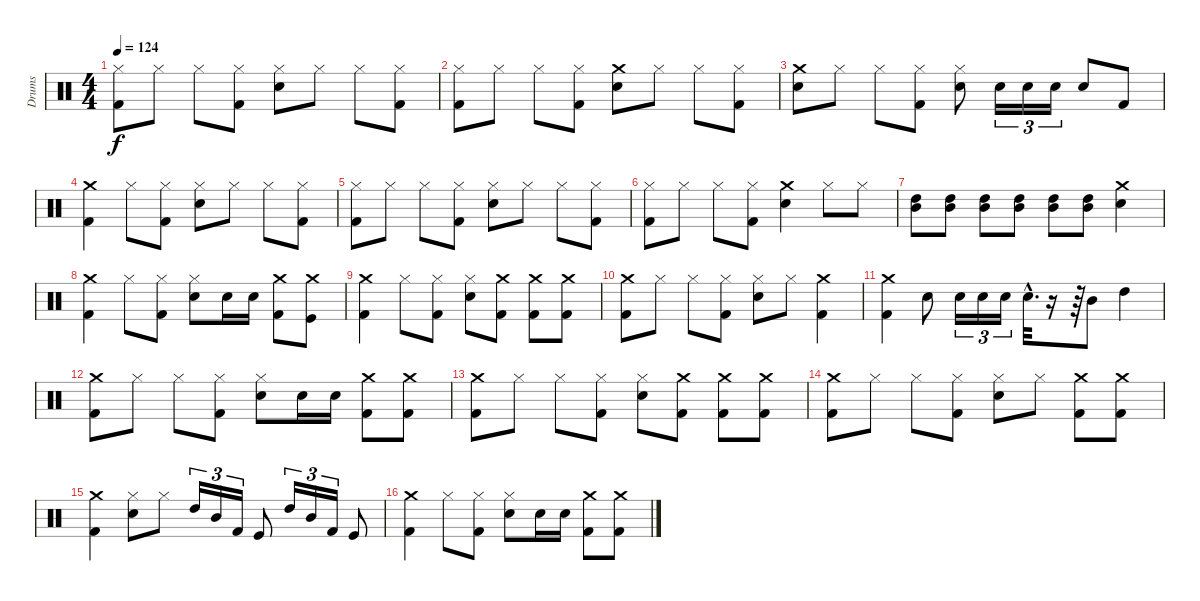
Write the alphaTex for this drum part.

\track ("Drums" "Drums") {instrument percussion}
\staff {score}
\articulation defaults
\ts (4 4)
\tempo 124
\clef neutral
\ks c
("Hi-Hat (closed)" "Kick (hit) 2").8{dy f} "Hi-Hat (closed)".8 "Hi-Hat (closed)".8 ("Kick (hit) 2" "Hi-Hat (closed)").8 ("Snare (hit) 2" "Hi-Hat (closed)").8 "Hi-Hat (closed)".8 "Hi-Hat (closed)".8 ("Kick (hit) 2" "Hi-Hat (closed)").8 |
("Hi-Hat (closed)" "Kick (hit) 2").8 "Hi-Hat (closed)".8 "Hi-Hat (closed)".8 ("Kick (hit) 2" "Hi-Hat (closed)").8 ("Crash medium (hit)" "Snare (hit) 2").8 "Hi-Hat (closed)".8 "Hi-Hat (closed)".8 ("Kick (hit) 2" "Hi-Hat (closed)").8 |
("Snare (hit) 2" "Crash medium (hit)").8 "Hi-Hat (closed)".8 "Hi-Hat (closed)".8 ("Kick (hit) 2" "Hi-Hat (closed)").8 ("Snare (hit) 2" "Hi-Hat (closed)").8 "Snare (hit) 2".16{tu (3 2)} "Snare (hit) 2".16{tu (3 2)} "Snare (hit) 2".16{tu (3 2)} "Snare (hit) 2".8 "Kick (hit) 2".8 |
("Kick (hit) 2" "Crash medium (hit)").4 "Hi-Hat (closed)".8 ("Kick (hit) 2" "Hi-Hat (closed)").8 ("Snare (hit) 2" "Hi-Hat (closed)").8 "Hi-Hat (closed)".8 "Hi-Hat (closed)".8 ("Kick (hit) 2" "Hi-Hat (closed)").8 |
("Kick (hit) 2" "Hi-Hat (closed)").8 "Hi-Hat (closed)".8 "Hi-Hat (closed)".8 ("Kick (hit) 2" "Hi-Hat (closed)").8 ("Snare (hit) 2" "Hi-Hat (closed)").8 "Hi-Hat (closed)".8 "Hi-Hat (closed)".8 ("Kick (hit) 2" "Hi-Hat (closed)").8 |
("Hi-Hat (closed)" "Kick (hit) 2").8 "Hi-Hat (closed)".8 "Hi-Hat (closed)".8 ("Kick (hit) 2" "Hi-Hat (closed)").8 ("Crash medium (hit)" "Snare (hit) 2").4 "Hi-Hat (closed)".8 "Hi-Hat (closed)".8 |
("High Tom (hit)" "Mid Tom (hit)").8 ("Mid Tom (hit)" "High Tom (hit)").8 ("Mid Tom (hit)" "High Tom (hit)").8 ("Mid Tom (hit)" "High Tom (hit)").8 ("Mid Tom (hit)" "High Tom (hit)").8 ("Mid Tom (hit)" "High Tom (hit)").8 ("Snare (hit) 2" "Crash medium (hit)").4 |
("Crash medium (hit)" "Kick (hit) 2").4 "Hi-Hat (closed)".8 ("Kick (hit) 2" "Hi-Hat (closed)").8 ("Snare (hit) 2" "Hi-Hat (closed)").8 "Snare (hit) 2".16 "Snare (hit) 2".16 ("Crash medium (hit)" "Kick (hit) 2").8 ("Crash medium (hit)" "Kick (hit)").8 |
("Kick (hit) 2" "Crash medium (hit)").4 "Hi-Hat (closed)".8 ("Kick (hit) 2" "Hi-Hat (closed)").8 ("Hi-Hat (closed)" "Snare (hit) 2").8 ("Kick (hit) 2" "Crash medium (hit)").8 ("Kick (hit) 2" "Crash medium (hit)").8 ("Kick (hit) 2" "Crash medium (hit)").8 |
("Kick (hit) 2" "Crash medium (hit)").8 "Hi-Hat (closed)".8 "Hi-Hat (closed)".8 ("Kick (hit) 2" "Hi-Hat (closed)").8 ("Snare (hit) 2" "Hi-Hat (closed)").8 "Hi-Hat (closed)".8 ("Kick (hit) 2" "Crash medium (hit)").4 |
("Kick (hit) 2" "Crash medium (hit)").4 "Snare (hit) 2".8 "Snare (hit) 2".16{tu (3 2)} "Snare (hit) 2".16{tu (3 2)} "Snare (hit) 2".16{tu (3 2)} "Snare (hit) 2"{hac}.32{d} r.16 r.64 "Mid Tom (hit)".8 "High Tom (hit)".4 |
("Kick (hit) 2" "Crash medium (hit)").8 "Hi-Hat (closed)".8 "Hi-Hat (closed)".8 ("Kick (hit) 2" "Hi-Hat (closed)").8 ("Snare (hit) 2" "Hi-Hat (closed)").8 "Snare (hit) 2".16 "Snare (hit) 2".16 ("Kick (hit) 2" "Crash medium (hit)").8 ("Kick (hit) 2" "Crash medium (hit)").8 |
("Kick (hit) 2" "Crash medium (hit)").8 "Hi-Hat (closed)".8 "Hi-Hat (closed)".8 ("Kick (hit) 2" "Hi-Hat (closed)").8 ("Snare (hit) 2" "Hi-Hat (closed)").8 ("Kick (hit) 2" "Crash medium (hit)").8 ("Kick (hit) 2" "Crash medium (hit)").8 ("Kick (hit) 2" "Crash medium (hit)").8 |
("Kick (hit) 2" "Crash medium (hit)").8 "Hi-Hat (closed)".8 "Hi-Hat (closed)".8 ("Kick (hit) 2" "Hi-Hat (closed)").8 ("Snare (hit) 2" "Hi-Hat (closed)").8 "Hi-Hat (closed)".8 ("Kick (hit) 2" "Crash medium (hit)").8 ("Kick (hit) 2" "Crash medium (hit)").8 |
("Kick (hit) 2" "Crash medium (hit)").4 ("Hi-Hat (closed)" "Snare (hit) 2").8 "Hi-Hat (closed)".8 "High Tom (hit)".16{tu (3 2)} "Mid Tom (hit)".16{tu (3 2)} "Kick (hit) 2".16{tu (3 2)} "Kick (hit)".8 "High Tom (hit)".16{tu (3 2)} "Mid Tom (hit)".16{tu (3 2)} "Kick (hit) 2".16{tu (3 2)} "Kick (hit)".8 |
("Kick (hit) 2" "Crash medium (hit)").4 "Hi-Hat (closed)".8 ("Kick (hit) 2" "Hi-Hat (closed)").8 ("Snare (hit) 2" "Hi-Hat (closed)").8 "Snare (hit) 2".16 "Snare (hit) 2".16 ("Crash medium (hit)" "Kick (hit) 2").8 ("Crash medium (hit)" "Kick (hit) 2").8
